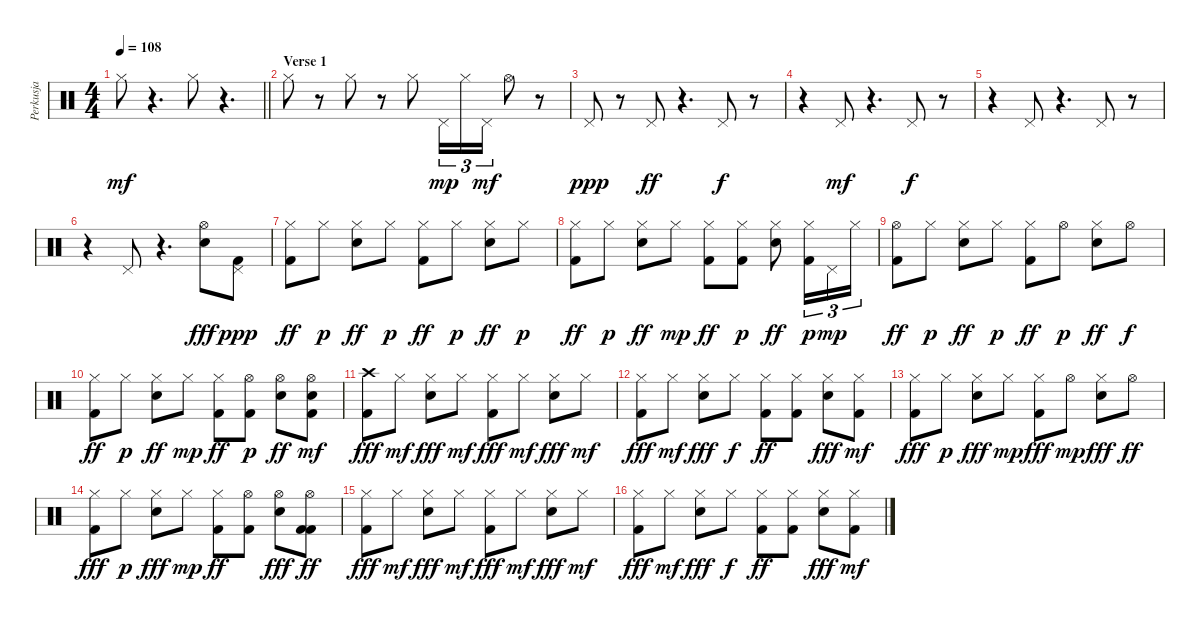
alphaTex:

\track ("Perkusja" "Perkusja") {instrument percussion}
\staff {score}
\articulation defaults
\ts (4 4)
\tempo 108
\clef neutral
\barLineRight lightlight
\ks c "Hi-Hat (closed)".8{dy mf}
r.4{d} "Hi-Hat (closed)".8 r.4{d} |
\section ("" "Verse 1")
"Hi-Hat (closed)".8 r.8 "Hi-Hat (closed)".8 r.8 "Hi-Hat (closed)".8 "Pedal Hi-Hat (hit)".16{tu (3 2) dy mp} "Hi-Hat (closed)".16{tu (3 2)} "Pedal Hi-Hat (hit)".16{tu (3 2) dy mf} "Hi-Hat (open)".8 r.8 |
"Pedal Hi-Hat (hit)".8{dy ppp} r.8 "Pedal Hi-Hat (hit)".8{dy ff} r.4{d} "Pedal Hi-Hat (hit)".8{dy f} r.8 |
r.4 "Pedal Hi-Hat (hit)".8{dy mf} r.4{d} "Pedal Hi-Hat (hit)".8{dy f} r.8 |
r.4 "Pedal Hi-Hat (hit)".8 r.4{d} "Pedal Hi-Hat (hit)".8 r.8 |
r.4 "Pedal Hi-Hat (hit)".8 r.4{d} ("Hi-Hat (open)" "Snare (hit) 2").8{dy fff} ("Kick (hit) 2" "Pedal Hi-Hat (hit)").8{dy ppp} |
("Kick (hit) 2" "Hi-Hat (closed)").8{dy ff} "Hi-Hat (closed)".8{dy p} ("Snare (hit) 2" "Hi-Hat (closed)").8{dy ff} "Hi-Hat (closed)".8{dy p} ("Kick (hit) 2" "Hi-Hat (closed)").8{dy ff} "Hi-Hat (closed)".8{dy p} ("Snare (hit) 2" "Hi-Hat (closed)").8{dy ff} "Hi-Hat (closed)".8{dy p} |
("Kick (hit) 2" "Hi-Hat (closed)").8{dy ff} "Hi-Hat (closed)".8{dy p} ("Snare (hit) 2" "Hi-Hat (closed)").8{dy ff} "Hi-Hat (closed)".8{dy mp} ("Kick (hit) 2" "Hi-Hat (closed)").8{dy ff} ("Kick (hit) 2" "Hi-Hat (closed)").8{dy p} ("Snare (hit) 2" "Hi-Hat (closed)").8{dy ff} ("Kick (hit) 2" "Hi-Hat (closed)").16{tu (3 2) dy p} "Pedal Hi-Hat (hit)".16{tu (3 2) dy mp} "Hi-Hat (closed)".16{tu (3 2)} |
("Kick (hit) 2" "Hi-Hat (open)").8{dy ff} "Hi-Hat (closed)".8{dy p} ("Snare (hit) 2" "Hi-Hat (closed)").8{dy ff} "Hi-Hat (closed)".8{dy p} ("Kick (hit) 2" "Hi-Hat (closed)").8{dy ff} "Hi-Hat (open)".8{dy p} ("Snare (hit) 2" "Hi-Hat (closed)").8{dy ff} "Hi-Hat (open)".8{dy f} |
("Kick (hit) 2" "Hi-Hat (closed)").8{dy ff} "Hi-Hat (closed)".8{dy p} ("Snare (hit) 2" "Hi-Hat (closed)").8{dy ff} "Hi-Hat (closed)".8{dy mp} ("Kick (hit) 2" "Hi-Hat (closed)").8{dy ff} ("Kick (hit) 2" "Hi-Hat (open)").8{dy p} ("Snare (hit) 2" "Hi-Hat (open)").8{dy ff} ("Snare (hit) 2" "Hi-Hat (open)" "Kick (hit) 2").8{dy mf} |
("Crash high (hit)" "Kick (hit) 2").8{dy fff} "Hi-Hat (closed)".8{dy mf} ("Hi-Hat (closed)" "Snare (hit) 2").8{dy fff} "Hi-Hat (closed)".8{dy mf} ("Hi-Hat (closed)" "Kick (hit) 2").8{dy fff} "Hi-Hat (closed)".8{dy mf} ("Hi-Hat (closed)" "Snare (hit) 2").8{dy fff} "Hi-Hat (closed)".8{dy mf} |
("Hi-Hat (closed)" "Kick (hit) 2").8{dy fff} "Hi-Hat (closed)".8{dy mf} ("Hi-Hat (closed)" "Snare (hit) 2").8{dy fff} "Hi-Hat (closed)".8{dy f} ("Hi-Hat (closed)" "Kick (hit) 2").8{dy ff} ("Hi-Hat (closed)" "Kick (hit) 2").8 ("Hi-Hat (closed)" "Snare (hit) 2").8{dy fff} ("Kick (hit) 2" "Hi-Hat (closed)").8{dy mf} |
("Hi-Hat (closed)" "Kick (hit) 2").8{dy fff} "Hi-Hat (closed)".8{dy p} ("Hi-Hat (closed)" "Snare (hit) 2").8{dy fff} "Hi-Hat (closed)".8{dy mp} ("Hi-Hat (closed)" "Kick (hit) 2").8{dy fff} "Hi-Hat (open)".8{dy mp} ("Hi-Hat (closed)" "Snare (hit) 2").8{dy fff} "Hi-Hat (open)".8{dy ff} |
("Hi-Hat (closed)" "Kick (hit) 2").8{dy fff} "Hi-Hat (closed)".8{dy p} ("Hi-Hat (closed)" "Snare (hit) 2").8{dy fff} "Hi-Hat (closed)".8{dy mp} ("Hi-Hat (closed)" "Kick (hit) 2").8{dy ff} ("Hi-Hat (open)" "Kick (hit) 2").8 ("Hi-Hat (open)" "Snare (hit) 2").8{dy fff} ("Kick (hit) 2" "Hi-Hat (open)" "Kick (hit) 2").8{dy ff} |
("Hi-Hat (closed)" "Kick (hit) 2").8{dy fff} "Hi-Hat (closed)".8{dy mf} ("Hi-Hat (closed)" "Snare (hit) 2").8{dy fff} "Hi-Hat (closed)".8{dy mf} ("Hi-Hat (closed)" "Kick (hit) 2").8{dy fff} "Hi-Hat (closed)".8{dy mf} ("Hi-Hat (closed)" "Snare (hit) 2").8{dy fff} "Hi-Hat (closed)".8{dy mf} |
("Hi-Hat (closed)" "Kick (hit) 2").8{dy fff} "Hi-Hat (closed)".8{dy mf} ("Hi-Hat (closed)" "Snare (hit) 2").8{dy fff} "Hi-Hat (closed)".8{dy f} ("Hi-Hat (closed)" "Kick (hit) 2").8{dy ff} ("Hi-Hat (closed)" "Kick (hit) 2").8 ("Hi-Hat (closed)" "Snare (hit) 2").8{dy fff} ("Kick (hit) 2" "Hi-Hat (closed)").8{dy mf}
